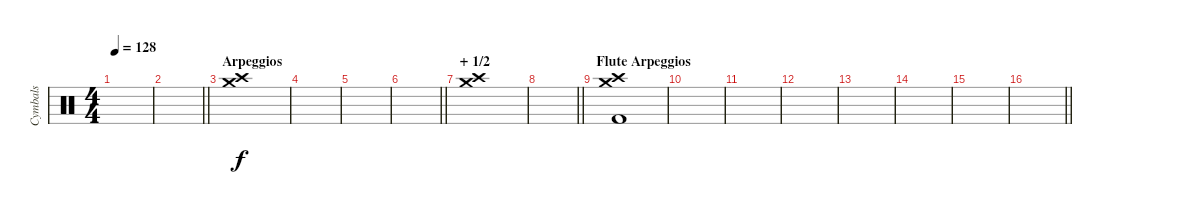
\track ("Cymbals" "Cymbals") {instrument percussion}
\staff {score}
\articulation defaults
\ts (4 4)
\tempo 128
\clef neutral
\ks c
|
\barLineRight lightlight
|
\section ("" "Arpeggios")
("Crash high (hit)" "Crash medium (hit)").1 |
|
|
\barLineRight lightlight
|
\section ("" "+ 1/2")
("Crash high (hit)" "Crash medium (hit)").1 |
\barLineRight lightlight
|
\section ("" "Flute Arpeggios")
("Crash high (hit)" "Crash medium (hit)" "Kick (hit) 2").1 |
|
|
|
|
|
|
\barLineRight lightlight
